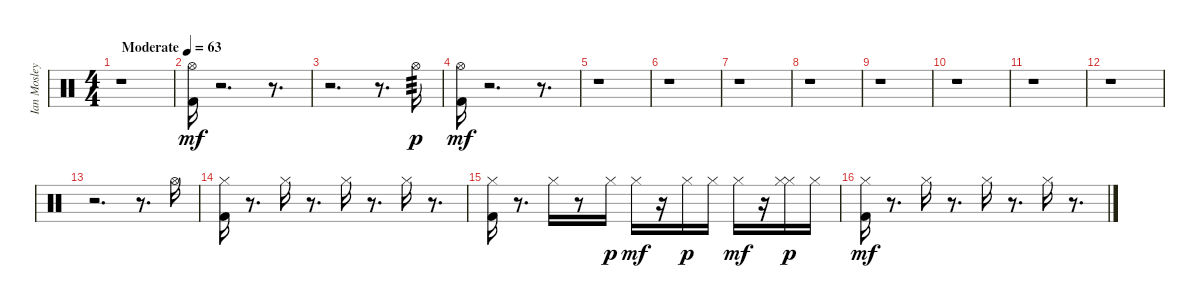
\track ("Ian Mosley" "Ian Mosley") {instrument percussion}
\staff {score}
\articulation defaults
\ts (4 4)
\tempo (63 "Moderate")
\clef neutral
\ks c
r.1{dy mf} |
("Kick (hit) 2" "Hi-Hat (open)").16 r.2{d} r.8{d} |
r.2{d} r.8{d} "Hi-Hat (open)".16{tp 3 dy p} |
("Kick (hit) 2" "Hi-Hat (open)").16{dy mf} r.2{d} r.8{d} |
r.1 |
r.1 |
r.1 |
r.1 |
r.1 |
r.1 |
r.1 |
r.1 |
r.2{d} r.8{d} "Hi-Hat (open)".16 |
("Kick (hit) 2" "Hi-Hat (closed)").16 r.8{d} "Hi-Hat (closed)".16 r.8{d} "Hi-Hat (closed)".16 r.8{d} "Hi-Hat (closed)".16 r.8{d} |
("Kick (hit) 2" "Hi-Hat (closed)").16 r.8{d} "Hi-Hat (closed)".16 r.8 "Hi-Hat (closed)".16{dy p} "Hi-Hat (closed)".16{dy mf} r.16 "Hi-Hat (closed)".16{dy p} "Hi-Hat (closed)".16 "Hi-Hat (closed)".16{dy mf} r.16 ("Hi-Hat (closed)" "Hi-Hat (closed)").16{dy p} "Hi-Hat (closed)".16 |
("Kick (hit) 2" "Hi-Hat (closed)").16{dy mf} r.8{d} "Hi-Hat (closed)".16 r.8{d} "Hi-Hat (closed)".16 r.8{d} "Hi-Hat (closed)".16 r.8{d}
